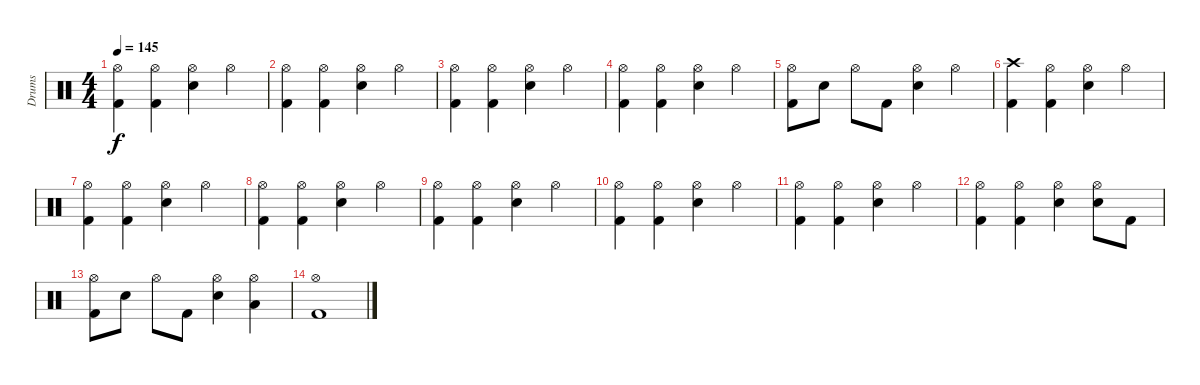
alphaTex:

\track ("Drums" "Drums") {instrument percussion}
\staff {score}
\articulation defaults
\ts (4 4)
\tempo 145
\clef neutral
\ks c
("Kick (hit) 2" "Hi-Hat (open)").4{dy f} ("Kick (hit) 2" "Hi-Hat (open)").4 ("Snare (hit) 2" "Hi-Hat (open)").4 "Hi-Hat (open)".4 |
("Kick (hit) 2" "Hi-Hat (open)").4 ("Kick (hit) 2" "Hi-Hat (open)").4 ("Snare (hit) 2" "Hi-Hat (open)").4 "Hi-Hat (open)".4 |
("Kick (hit) 2" "Hi-Hat (open)").4 ("Kick (hit) 2" "Hi-Hat (open)").4 ("Snare (hit) 2" "Hi-Hat (open)").4 "Hi-Hat (open)".4 |
("Kick (hit) 2" "Hi-Hat (open)").4 ("Kick (hit) 2" "Hi-Hat (open)").4 ("Snare (hit) 2" "Hi-Hat (open)").4 "Hi-Hat (open)".4 |
("Kick (hit) 2" "Hi-Hat (open)").8 "Snare (hit) 2".8 "Hi-Hat (open)".8 "Kick (hit) 2".8 ("Snare (hit) 2" "Hi-Hat (open)").4 "Hi-Hat (open)".4 |
("Crash high (hit)" "Kick (hit) 2").4 ("Kick (hit) 2" "Hi-Hat (open)").4 ("Snare (hit) 2" "Hi-Hat (open)").4 "Hi-Hat (open)".4 |
("Kick (hit) 2" "Hi-Hat (open)").4 ("Kick (hit) 2" "Hi-Hat (open)").4 ("Snare (hit) 2" "Hi-Hat (open)").4 "Hi-Hat (open)".4 |
("Kick (hit) 2" "Hi-Hat (open)").4 ("Kick (hit) 2" "Hi-Hat (open)").4 ("Snare (hit) 2" "Hi-Hat (open)").4 "Hi-Hat (open)".4 |
("Kick (hit) 2" "Hi-Hat (open)").4 ("Kick (hit) 2" "Hi-Hat (open)").4 ("Snare (hit) 2" "Hi-Hat (open)").4 "Hi-Hat (open)".4 |
("Kick (hit) 2" "Hi-Hat (open)").4 ("Kick (hit) 2" "Hi-Hat (open)").4 ("Snare (hit) 2" "Hi-Hat (open)").4 "Hi-Hat (open)".4 |
("Kick (hit) 2" "Hi-Hat (open)").4 ("Kick (hit) 2" "Hi-Hat (open)").4 ("Snare (hit) 2" "Hi-Hat (open)").4 "Hi-Hat (open)".4 |
("Kick (hit) 2" "Hi-Hat (open)").4 ("Kick (hit) 2" "Hi-Hat (open)").4 ("Snare (hit) 2" "Hi-Hat (open)").4 ("Snare (hit) 2" "Hi-Hat (open)").8 "Kick (hit) 2".8 |
("Kick (hit) 2" "Hi-Hat (open)").8 "Snare (hit) 2".8 "Hi-Hat (open)".8 "Kick (hit) 2".8 ("Snare (hit) 2" "Hi-Hat (open)").4 ("Low Tom (hit)" "Hi-Hat (open)").4 |
("Kick (hit) 2" "Hi-Hat (open)").1
